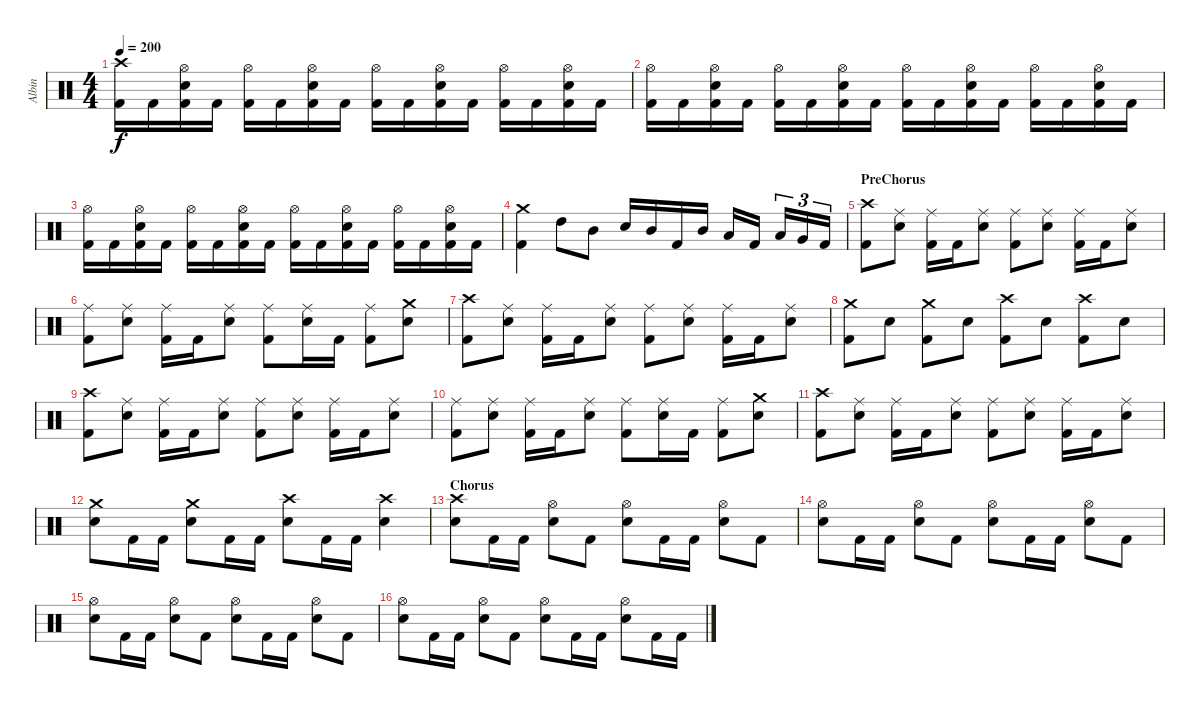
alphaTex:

\track ("Albin" "Albin") {instrument percussion}
\staff {score}
\articulation defaults
\ts (4 4)
\tempo 200
\clef neutral
\ks c
("Crash high (hit)" "Kick (hit) 2").16{dy f} "Kick (hit) 2".16 ("Hi-Hat (open)" "Snare (hit) 2" "Kick (hit) 2").16 "Kick (hit) 2".16 ("Hi-Hat (open)" "Kick (hit) 2").16 "Kick (hit) 2".16 ("Hi-Hat (open)" "Snare (hit) 2" "Kick (hit) 2").16 "Kick (hit) 2".16 ("Hi-Hat (open)" "Kick (hit) 2").16 "Kick (hit) 2".16 ("Hi-Hat (open)" "Snare (hit) 2" "Kick (hit) 2").16 "Kick (hit) 2".16 ("Hi-Hat (open)" "Kick (hit) 2").16 "Kick (hit) 2".16 ("Hi-Hat (open)" "Snare (hit) 2" "Kick (hit) 2").16 "Kick (hit) 2".16 |
("Hi-Hat (open)" "Kick (hit) 2").16 "Kick (hit) 2".16 ("Hi-Hat (open)" "Snare (hit) 2" "Kick (hit) 2").16 "Kick (hit) 2".16 ("Hi-Hat (open)" "Kick (hit) 2").16 "Kick (hit) 2".16 ("Hi-Hat (open)" "Snare (hit) 2" "Kick (hit) 2").16 "Kick (hit) 2".16 ("Hi-Hat (open)" "Kick (hit) 2").16 "Kick (hit) 2".16 ("Hi-Hat (open)" "Snare (hit) 2" "Kick (hit) 2").16 "Kick (hit) 2".16 ("Hi-Hat (open)" "Kick (hit) 2").16 "Kick (hit) 2".16 ("Hi-Hat (open)" "Snare (hit) 2" "Kick (hit) 2").16 "Kick (hit) 2".16 |
("Hi-Hat (open)" "Kick (hit) 2").16 "Kick (hit) 2".16 ("Hi-Hat (open)" "Snare (hit) 2" "Kick (hit) 2").16 "Kick (hit) 2".16 ("Hi-Hat (open)" "Kick (hit) 2").16 "Kick (hit) 2".16 ("Hi-Hat (open)" "Snare (hit) 2" "Kick (hit) 2").16 "Kick (hit) 2".16 ("Hi-Hat (open)" "Kick (hit) 2").16 "Kick (hit) 2".16 ("Hi-Hat (open)" "Snare (hit) 2" "Kick (hit) 2").16 "Kick (hit) 2".16 ("Hi-Hat (open)" "Kick (hit) 2").16 "Kick (hit) 2".16 ("Hi-Hat (open)" "Snare (hit) 2" "Kick (hit) 2").16 "Kick (hit) 2".16 |
("Crash medium (hit)" "Kick (hit) 2").4 "High Tom (hit)".8 "Mid Tom (hit)".8 "Snare (hit) 2".16 "Mid Tom (hit)".16 "Kick (hit) 2".16 "Mid Tom (hit)".16 "Low Tom (hit)".16 "Kick (hit) 2".16 "Low Tom (hit)".16{tu (3 2)} "Very Low Tom (hit)".16{tu (3 2)} "Kick (hit) 2".16{tu (3 2)} |
\section ("" "PreChorus")
("Crash high (hit)" "Kick (hit) 2").8 ("Ride (middle)" "Snare (hit) 2").8 ("Ride (middle)" "Kick (hit) 2").16 "Kick (hit) 2".16 ("Ride (middle)" "Snare (hit) 2").8 ("Ride (middle)" "Kick (hit) 2").8 ("Ride (middle)" "Snare (hit) 2").8 ("Ride (middle)" "Kick (hit) 2").16 "Kick (hit) 2".16 ("Ride (middle)" "Snare (hit) 2").8 |
("Ride (middle)" "Kick (hit) 2").8 ("Ride (middle)" "Snare (hit) 2").8 ("Ride (middle)" "Kick (hit) 2").16 "Kick (hit) 2".16 ("Ride (middle)" "Snare (hit) 2").8 ("Ride (middle)" "Kick (hit) 2").8 ("Ride (middle)" "Snare (hit) 2").16 "Kick (hit) 2".16 ("Ride (middle)" "Kick (hit) 2").8 ("Crash medium (hit)" "Snare (hit) 2").8 |
("Crash high (hit)" "Kick (hit) 2").8 ("Ride (middle)" "Snare (hit) 2").8 ("Ride (middle)" "Kick (hit) 2").16 "Kick (hit) 2".16 ("Ride (middle)" "Snare (hit) 2").8 ("Ride (middle)" "Kick (hit) 2").8 ("Ride (middle)" "Snare (hit) 2").8 ("Ride (middle)" "Kick (hit) 2").16 "Kick (hit) 2".16 ("Ride (middle)" "Snare (hit) 2").8 |
("Crash medium (hit)" "Kick (hit) 2").8 "Snare (hit) 2".8 ("Crash medium (hit)" "Kick (hit) 2").8 "Snare (hit) 2".8 ("Crash high (hit)" "Kick (hit) 2").8 "Snare (hit) 2".8 ("Crash high (hit)" "Kick (hit) 2").8 "Snare (hit) 2".8 |
("Crash high (hit)" "Kick (hit) 2").8 ("Ride (middle)" "Snare (hit) 2").8 ("Ride (middle)" "Kick (hit) 2").16 "Kick (hit) 2".16 ("Ride (middle)" "Snare (hit) 2").8 ("Ride (middle)" "Kick (hit) 2").8 ("Ride (middle)" "Snare (hit) 2").8 ("Ride (middle)" "Kick (hit) 2").16 "Kick (hit) 2".16 ("Ride (middle)" "Snare (hit) 2").8 |
("Ride (middle)" "Kick (hit) 2").8 ("Ride (middle)" "Snare (hit) 2").8 ("Ride (middle)" "Kick (hit) 2").16 "Kick (hit) 2".16 ("Ride (middle)" "Snare (hit) 2").8 ("Ride (middle)" "Kick (hit) 2").8 ("Ride (middle)" "Snare (hit) 2").16 "Kick (hit) 2".16 ("Ride (middle)" "Kick (hit) 2").8 ("Crash medium (hit)" "Snare (hit) 2").8 |
("Crash high (hit)" "Kick (hit) 2").8 ("Ride (middle)" "Snare (hit) 2").8 ("Ride (middle)" "Kick (hit) 2").16 "Kick (hit) 2".16 ("Ride (middle)" "Snare (hit) 2").8 ("Ride (middle)" "Kick (hit) 2").8 ("Ride (middle)" "Snare (hit) 2").8 ("Ride (middle)" "Kick (hit) 2").16 "Kick (hit) 2".16 ("Ride (middle)" "Snare (hit) 2").8 |
("Crash medium (hit)" "Snare (hit) 2").8 "Kick (hit) 2".16 "Kick (hit) 2".16 ("Crash medium (hit)" "Snare (hit) 2").8 "Kick (hit) 2".16 "Kick (hit) 2".16 ("Crash high (hit)" "Snare (hit) 2").8 "Kick (hit) 2".16 "Kick (hit) 2".16 ("Crash high (hit)" "Snare (hit) 2").4 |
\section ("" "Chorus")
("Crash high (hit)" "Snare (hit) 2").8 "Kick (hit) 2".16 "Kick (hit) 2".16 ("Hi-Hat (open)" "Snare (hit) 2").8 "Kick (hit) 2".8 ("Hi-Hat (open)" "Snare (hit) 2").8 "Kick (hit) 2".16 "Kick (hit) 2".16 ("Hi-Hat (open)" "Snare (hit) 2").8 "Kick (hit) 2".8 |
("Hi-Hat (open)" "Snare (hit) 2").8 "Kick (hit) 2".16 "Kick (hit) 2".16 ("Hi-Hat (open)" "Snare (hit) 2").8 "Kick (hit) 2".8 ("Hi-Hat (open)" "Snare (hit) 2").8 "Kick (hit) 2".16 "Kick (hit) 2".16 ("Hi-Hat (open)" "Snare (hit) 2").8 "Kick (hit) 2".8 |
("Hi-Hat (open)" "Snare (hit) 2").8 "Kick (hit) 2".16 "Kick (hit) 2".16 ("Hi-Hat (open)" "Snare (hit) 2").8 "Kick (hit) 2".8 ("Hi-Hat (open)" "Snare (hit) 2").8 "Kick (hit) 2".16 "Kick (hit) 2".16 ("Hi-Hat (open)" "Snare (hit) 2").8 "Kick (hit) 2".8 |
("Hi-Hat (open)" "Snare (hit) 2").8 "Kick (hit) 2".16 "Kick (hit) 2".16 ("Hi-Hat (open)" "Snare (hit) 2").8 "Kick (hit) 2".8 ("Hi-Hat (open)" "Snare (hit) 2").8 "Kick (hit) 2".16 "Kick (hit) 2".16 ("Hi-Hat (open)" "Snare (hit) 2").8 "Kick (hit) 2".16 "Kick (hit) 2".16
